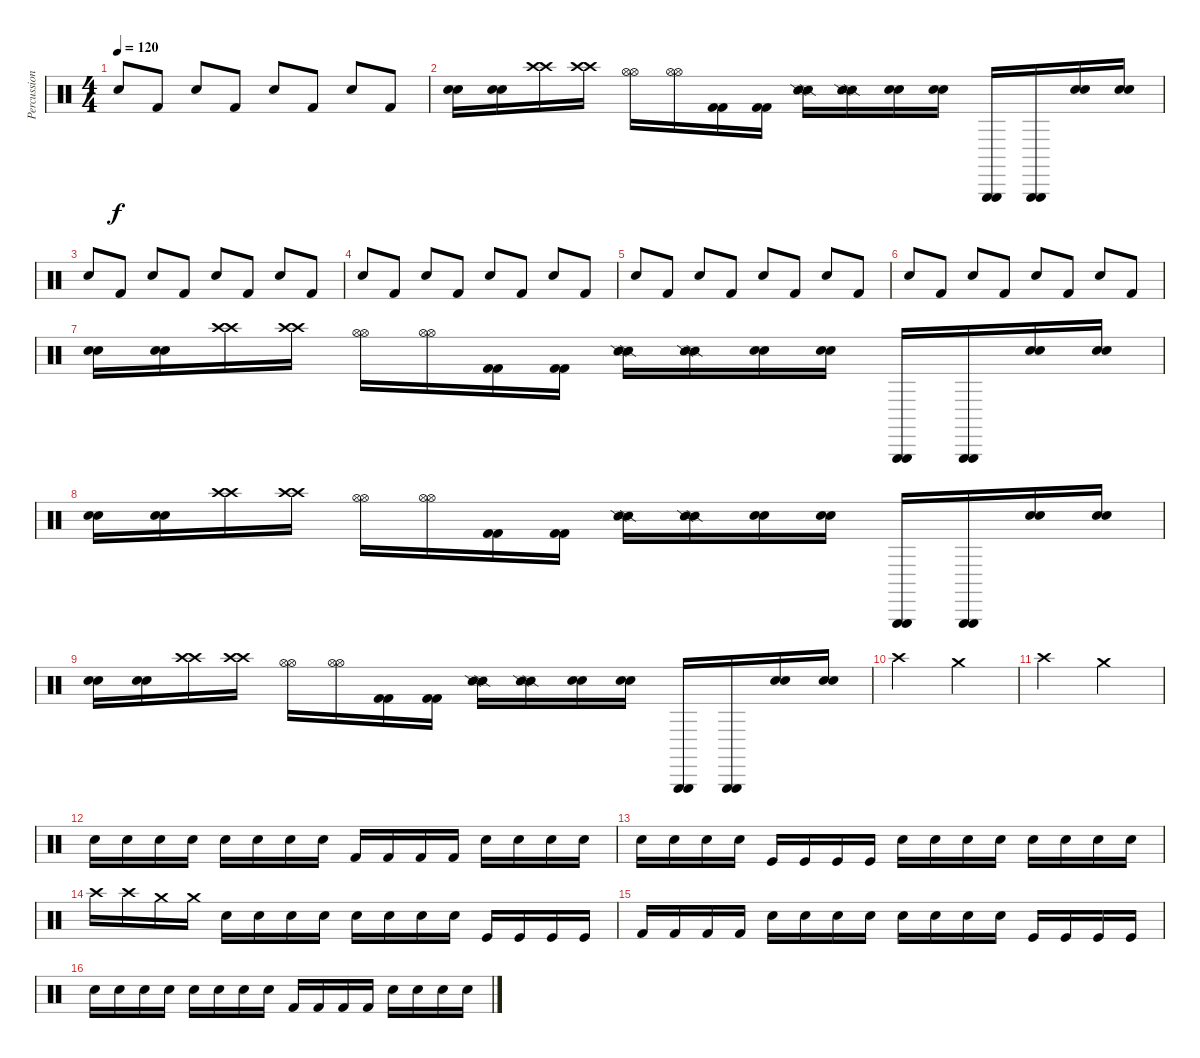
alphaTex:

\track ("Percussions" "Percussion") {instrument percussion}
\staff {score}
\articulation defaults
\ts (4 4)
\tempo 120
\clef neutral
\ks c "Electric Snare (hit)".8{dy f} "Kick (hit) 2".8 "Electric Snare (hit)".8 "Kick (hit) 2".8 "Electric Snare (hit)".8 "Kick (hit) 2".8 "Electric Snare (hit)".8 "Kick (hit) 2".8
|
("Snare (hit) 2" "Snare (hit) 2").16 ("Snare (hit) 2" "Snare (hit) 2").16 ("Crash high (hit)" "Crash high (hit)").16 ("Crash high (hit)" "Crash high (hit)").16 ("Hi-Hat (open)" "Hi-Hat (open)").16 ("Hi-Hat (open)" "Hi-Hat (open)").16 ("Kick (hit) 2" "Kick (hit) 2").16 ("Kick (hit) 2" "Kick (hit) 2").16 ("Snare (side stick) 2" "Snare (side stick) 2").16 ("Snare (side stick) 2" "Snare (side stick) 2").16 ("Electric Snare (hit)" "Electric Snare (hit)").16 ("Electric Snare (hit)" "Electric Snare (hit)").16 ("Triangle (hit)" "Triangle (hit)").16 ("Triangle (hit)" "Triangle (hit)").16 ("Snare (hit) 2" "Snare (hit) 2").16 ("Snare (hit) 2" "Snare (hit) 2").16 |
"Electric Snare (hit)".8 "Kick (hit) 2".8 "Electric Snare (hit)".8 "Kick (hit) 2".8 "Electric Snare (hit)".8 "Kick (hit) 2".8 "Electric Snare (hit)".8 "Kick (hit) 2".8 |
"Electric Snare (hit)".8 "Kick (hit) 2".8 "Electric Snare (hit)".8 "Kick (hit) 2".8 "Electric Snare (hit)".8 "Kick (hit) 2".8 "Electric Snare (hit)".8 "Kick (hit) 2".8 |
"Electric Snare (hit)".8 "Kick (hit) 2".8 "Electric Snare (hit)".8 "Kick (hit) 2".8 "Electric Snare (hit)".8 "Kick (hit) 2".8 "Electric Snare (hit)".8 "Kick (hit) 2".8 |
"Electric Snare (hit)".8 "Kick (hit) 2".8 "Electric Snare (hit)".8 "Kick (hit) 2".8 "Electric Snare (hit)".8 "Kick (hit) 2".8 "Electric Snare (hit)".8 "Kick (hit) 2".8 |
("Snare (hit) 2" "Snare (hit) 2").16 ("Snare (hit) 2" "Snare (hit) 2").16 ("Crash high (hit)" "Crash high (hit)").16 ("Crash high (hit)" "Crash high (hit)").16 ("Hi-Hat (open)" "Hi-Hat (open)").16 ("Hi-Hat (open)" "Hi-Hat (open)").16 ("Kick (hit) 2" "Kick (hit) 2").16 ("Kick (hit) 2" "Kick (hit) 2").16 ("Snare (side stick) 2" "Snare (side stick) 2").16 ("Snare (side stick) 2" "Snare (side stick) 2").16 ("Electric Snare (hit)" "Electric Snare (hit)").16 ("Electric Snare (hit)" "Electric Snare (hit)").16 ("Triangle (hit)" "Triangle (hit)").16 ("Triangle (hit)" "Triangle (hit)").16 ("Snare (hit) 2" "Snare (hit) 2").16 ("Snare (hit) 2" "Snare (hit) 2").16 |
("Snare (hit) 2" "Snare (hit) 2").16 ("Snare (hit) 2" "Snare (hit) 2").16 ("Crash high (hit)" "Crash high (hit)").16 ("Crash high (hit)" "Crash high (hit)").16 ("Hi-Hat (open)" "Hi-Hat (open)").16 ("Hi-Hat (open)" "Hi-Hat (open)").16 ("Kick (hit) 2" "Kick (hit) 2").16 ("Kick (hit) 2" "Kick (hit) 2").16 ("Snare (side stick) 2" "Snare (side stick) 2").16 ("Snare (side stick) 2" "Snare (side stick) 2").16 ("Electric Snare (hit)" "Electric Snare (hit)").16 ("Electric Snare (hit)" "Electric Snare (hit)").16 ("Triangle (hit)" "Triangle (hit)").16 ("Triangle (hit)" "Triangle (hit)").16 ("Snare (hit) 2" "Snare (hit) 2").16 ("Snare (hit) 2" "Snare (hit) 2").16 |
("Snare (hit) 2" "Snare (hit) 2").16 ("Snare (hit) 2" "Snare (hit) 2").16 ("Crash high (hit)" "Crash high (hit)").16 ("Crash high (hit)" "Crash high (hit)").16 ("Hi-Hat (open)" "Hi-Hat (open)").16 ("Hi-Hat (open)" "Hi-Hat (open)").16 ("Kick (hit) 2" "Kick (hit) 2").16 ("Kick (hit) 2" "Kick (hit) 2").16 ("Snare (side stick) 2" "Snare (side stick) 2").16 ("Snare (side stick) 2" "Snare (side stick) 2").16 ("Electric Snare (hit)" "Electric Snare (hit)").16 ("Electric Snare (hit)" "Electric Snare (hit)").16 ("Triangle (hit)" "Triangle (hit)").16 ("Triangle (hit)" "Triangle (hit)").16 ("Snare (hit) 2" "Snare (hit) 2").16 ("Snare (hit) 2" "Snare (hit) 2").16 |
"Crash high (hit)".2 "Crash medium (hit)".2 |
"Crash high (hit)".2 "Crash medium (hit)".2 |
"Electric Snare (hit)".16 "Electric Snare (hit)".16 "Electric Snare (hit)".16 "Electric Snare (hit)".16 "Snare (hit) 2".16 "Snare (hit) 2".16 "Snare (hit) 2".16 "Snare (hit) 2".16 "Kick (hit) 2".16 "Kick (hit) 2".16 "Kick (hit) 2".16 "Kick (hit) 2".16 "Electric Snare (hit)".16 "Electric Snare (hit)".16 "Electric Snare (hit)".16 "Electric Snare (hit)".16 |
"Snare (hit) 2".16 "Snare (hit)".16 "Snare (hit) 2".16 "Snare (hit) 2".16 "Kick (hit)".16 "Kick (hit)".16 "Kick (hit)".16 "Kick (hit)".16 "Electric Snare (hit)".16 "Electric Snare (hit)".16 "Electric Snare (hit)".16 "Electric Snare (hit)".16 "Snare (hit) 2".16 "Snare (hit) 2".16 "Snare (hit) 2".16 "Snare (hit) 2".16 |
"Crash high (hit)".16 "Crash high (hit)".16 "Crash medium (hit)".16 "Crash medium (hit)".16 "Electric Snare (hit)".16 "Electric Snare (hit)".16 "Electric Snare (hit)".16 "Electric Snare (hit)".16 "Snare (hit) 2".16 "Snare (hit) 2".16 "Snare (hit) 2".16 "Snare (hit) 2".16 "Kick (hit)".16 "Kick (hit)".16 "Kick (hit)".16 "Kick (hit)".16 |
"Kick (hit) 2".16 "Kick (hit) 2".16 "Kick (hit) 2".16 "Kick (hit) 2".16 "Electric Snare (hit)".16 "Electric Snare (hit)".16 "Electric Snare (hit)".16 "Electric Snare (hit)".16 "Snare (hit) 2".16 "Snare (hit) 2".16 "Snare (hit) 2".16 "Snare (hit) 2".16 "Kick (hit)".16 "Kick (hit)".16 "Kick (hit)".16 "Kick (hit)".16 |
"Electric Snare (hit)".16 "Electric Snare (hit)".16 "Electric Snare (hit)".16 "Electric Snare (hit)".16 "Snare (hit) 2".16 "Snare (hit) 2".16 "Snare (hit) 2".16 "Snare (hit) 2".16 "Kick (hit) 2".16 "Kick (hit) 2".16 "Kick (hit) 2".16 "Kick (hit) 2".16 "Electric Snare (hit)".16 "Electric Snare (hit)".16 "Electric Snare (hit)".16 "Electric Snare (hit)".16
